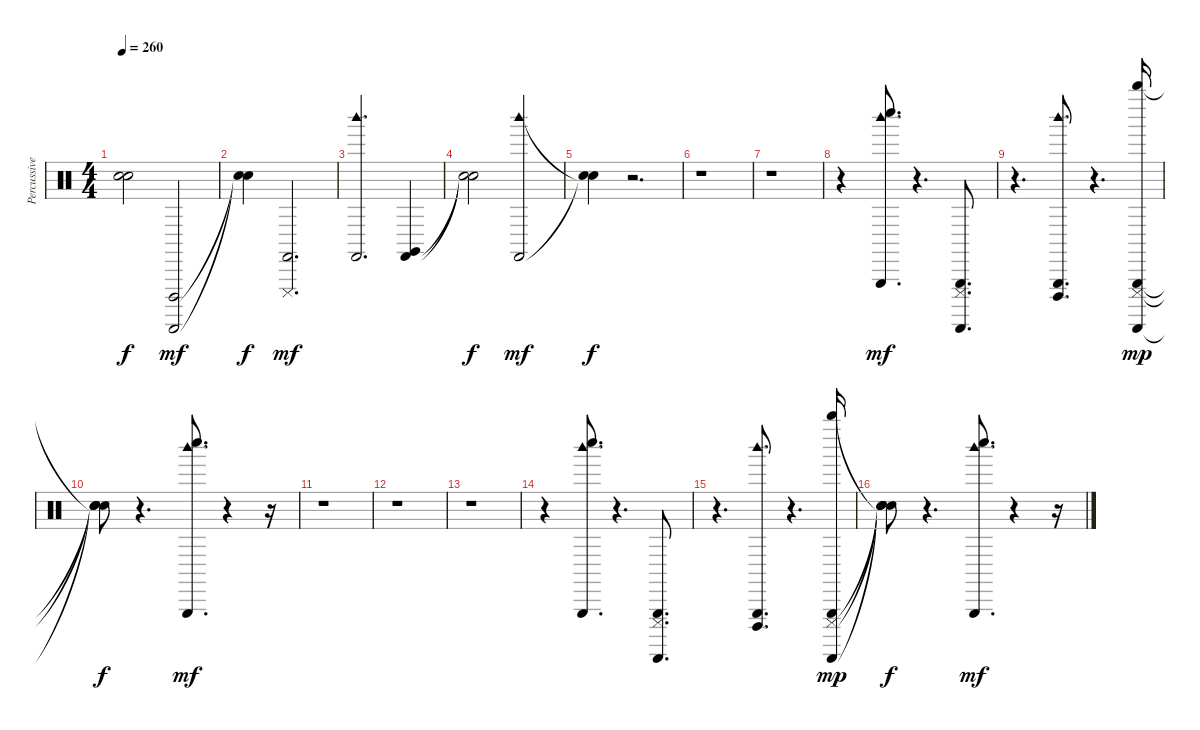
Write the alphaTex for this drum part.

\track ("Percussive Organ" "Percussive") {instrument percussion}
\staff {score}
\articulation defaults
\ts (4 4)
\tempo 260
\clef neutral
\ks c
("Snare (hit)"{t} "Snare (hit)"{t}).2{dy f} ("Cuica (open)" "Guiro (scrap-return)").2{dy mf} |
("Snare (hit)"{t} "Snare (hit)"{t}).4{dy f} ("Cuica (mute)" "Castanets (hit)").2{d dy mf} |
("Woodblock high (hit)" "Castanets (hit)").2{d} ("Claves (hit)" "Castanets (hit)").4 |
("Snare (hit)"{t} "Snare (hit)"{t}).2{dy f} ("Woodblock high (hit)" "Castanets (hit)").2{dy mf} |
("Snare (hit)"{t} "Snare (hit)"{t}).4{dy f} r.2{d} |
r.1 |
r.1 |
r.4 ("Whistle low (hit)" "Triangle (hit)" "Woodblock high (hit)").8{d dy mf} r.4{d} ("Guiro (scrap-return)" "Triangle (hit)" "Cuica (mute)").8{d} |
r.4{d} ("Woodblock high (hit)" "Triangle (hit)" "Cuica (open)").8{d} r.4{d} ("Whistle high (hit)" "Triangle (hit)" "Cuica (mute)" "Guiro (scrap-return)").16{dy mp} |
("Snare (hit)"{t} "Snare (hit)"{t} "Snare (hit)"{t} "Snare (hit)"{t}).8{dy f} r.4{d} ("Whistle low (hit)" "Triangle (hit)" "Woodblock high (hit)").8{d dy mf} r.4 r.16 |
r.1 |
r.1 |
r.1 |
r.4 ("Whistle low (hit)" "Triangle (hit)" "Woodblock high (hit)").8{d} r.4{d} ("Guiro (scrap-return)" "Triangle (hit)" "Cuica (mute)").8{d} |
r.4{d} ("Woodblock high (hit)" "Triangle (hit)" "Cuica (open)").8{d} r.4{d} ("Whistle high (hit)" "Triangle (hit)" "Cuica (mute)" "Guiro (scrap-return)").16{dy mp} |
("Snare (hit)"{t} "Snare (hit)"{t} "Snare (hit)"{t} "Snare (hit)"{t}).8{dy f} r.4{d} ("Whistle low (hit)" "Triangle (hit)" "Woodblock high (hit)").8{d dy mf} r.4 r.16
